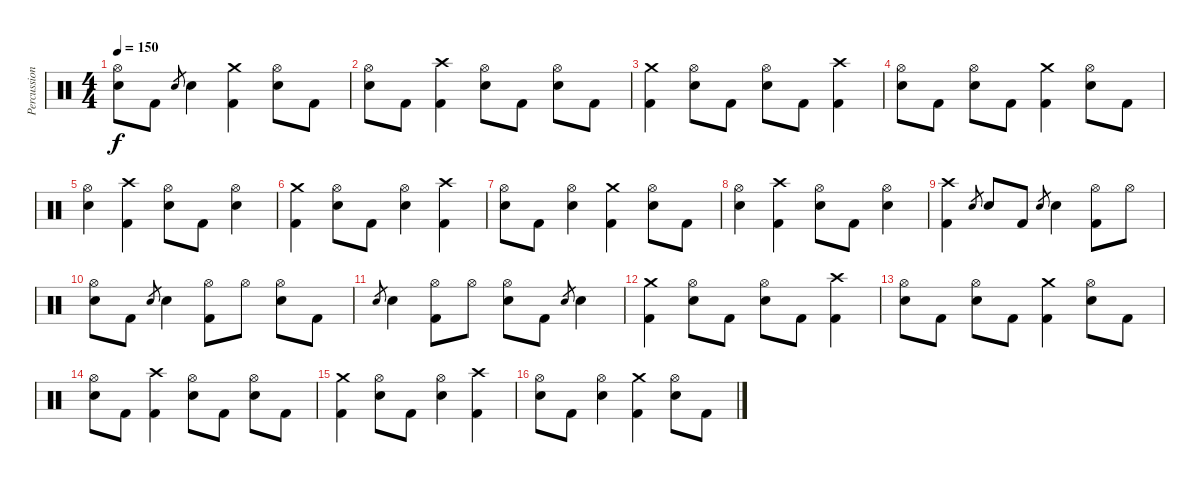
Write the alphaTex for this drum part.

\track ("Percussion" "Percussion") {instrument percussion}
\staff {score}
\articulation defaults
\ts (4 4)
\tempo 150
\clef neutral
\ks c
("Hi-Hat (open)" "Electric Snare (hit)").8{dy f} "Kick (hit) 2".8 "Electric Snare (hit)".8{gr} "Electric Snare (hit)".4 ("Crash medium (hit)" "Kick (hit) 2").4 ("Hi-Hat (open)" "Electric Snare (hit)").8 "Kick (hit) 2".8 |
("Hi-Hat (open)" "Electric Snare (hit)").8 "Kick (hit) 2".8 ("Crash high (hit)" "Kick (hit) 2").4 ("Hi-Hat (open)" "Electric Snare (hit)").8 "Kick (hit) 2".8 ("Hi-Hat (open)" "Electric Snare (hit)").8 "Kick (hit) 2".8 |
("Crash medium (hit)" "Kick (hit) 2").4 ("Hi-Hat (open)" "Electric Snare (hit)").8 "Kick (hit) 2".8 ("Hi-Hat (open)" "Electric Snare (hit)").8 "Kick (hit) 2".8 ("Crash high (hit)" "Kick (hit) 2").4 |
("Hi-Hat (open)" "Electric Snare (hit)").8 "Kick (hit) 2".8 ("Hi-Hat (open)" "Electric Snare (hit)").8 "Kick (hit) 2".8 ("Crash medium (hit)" "Kick (hit) 2").4 ("Hi-Hat (open)" "Electric Snare (hit)").8 "Kick (hit) 2".8 |
("Hi-Hat (open)" "Electric Snare (hit)").4 ("Crash high (hit)" "Kick (hit) 2").4 ("Hi-Hat (open)" "Electric Snare (hit)").8 "Kick (hit) 2".8 ("Hi-Hat (open)" "Electric Snare (hit)").4 |
("Crash medium (hit)" "Kick (hit) 2").4 ("Hi-Hat (open)" "Electric Snare (hit)").8 "Kick (hit) 2".8 ("Hi-Hat (open)" "Electric Snare (hit)").4 ("Crash high (hit)" "Kick (hit) 2").4 |
("Hi-Hat (open)" "Electric Snare (hit)").8 "Kick (hit) 2".8 ("Hi-Hat (open)" "Electric Snare (hit)").4 ("Crash medium (hit)" "Kick (hit) 2").4 ("Hi-Hat (open)" "Electric Snare (hit)").8 "Kick (hit) 2".8 |
("Hi-Hat (open)" "Electric Snare (hit)").4 ("Crash high (hit)" "Kick (hit) 2").4 ("Hi-Hat (open)" "Electric Snare (hit)").8 "Kick (hit) 2".8 ("Hi-Hat (open)" "Electric Snare (hit)").4 |
("Crash high (hit)" "Kick (hit) 2").4 "Electric Snare (hit)".8{gr} "Electric Snare (hit)".8 "Kick (hit) 2".8 "Electric Snare (hit)".8{gr} "Electric Snare (hit)".4 ("Hi-Hat (open)" "Kick (hit) 2").8 "Hi-Hat (open)".8 |
("Hi-Hat (open)" "Electric Snare (hit)").8 "Kick (hit) 2".8 "Electric Snare (hit)".8{gr} "Electric Snare (hit)".4 ("Hi-Hat (open)" "Kick (hit) 2").8 "Hi-Hat (open)".8 ("Hi-Hat (open)" "Electric Snare (hit)").8 "Kick (hit) 2".8 |
"Electric Snare (hit)".8{gr} "Electric Snare (hit)".4 ("Hi-Hat (open)" "Kick (hit) 2").8 "Hi-Hat (open)".8 ("Hi-Hat (open)" "Electric Snare (hit)").8 "Kick (hit) 2".8 "Electric Snare (hit)".8{gr} "Electric Snare (hit)".4 |
("Crash medium (hit)" "Kick (hit) 2").4 ("Hi-Hat (open)" "Electric Snare (hit)").8 "Kick (hit) 2".8 ("Hi-Hat (open)" "Electric Snare (hit)").8 "Kick (hit) 2".8 ("Crash high (hit)" "Kick (hit) 2").4 |
("Hi-Hat (open)" "Electric Snare (hit)").8 "Kick (hit) 2".8 ("Hi-Hat (open)" "Electric Snare (hit)").8 "Kick (hit) 2".8 ("Crash medium (hit)" "Kick (hit) 2").4 ("Hi-Hat (open)" "Electric Snare (hit)").8 "Kick (hit) 2".8 |
("Hi-Hat (open)" "Electric Snare (hit)").8 "Kick (hit) 2".8 ("Crash high (hit)" "Kick (hit) 2").4 ("Hi-Hat (open)" "Electric Snare (hit)").8 "Kick (hit) 2".8 ("Hi-Hat (open)" "Electric Snare (hit)").8 "Kick (hit) 2".8 |
("Crash medium (hit)" "Kick (hit) 2").4 ("Hi-Hat (open)" "Electric Snare (hit)").8 "Kick (hit) 2".8 ("Hi-Hat (open)" "Electric Snare (hit)").4 ("Crash high (hit)" "Kick (hit) 2").4 |
("Hi-Hat (open)" "Electric Snare (hit)").8 "Kick (hit) 2".8 ("Hi-Hat (open)" "Electric Snare (hit)").4 ("Crash medium (hit)" "Kick (hit) 2").4 ("Hi-Hat (open)" "Electric Snare (hit)").8 "Kick (hit) 2".8
